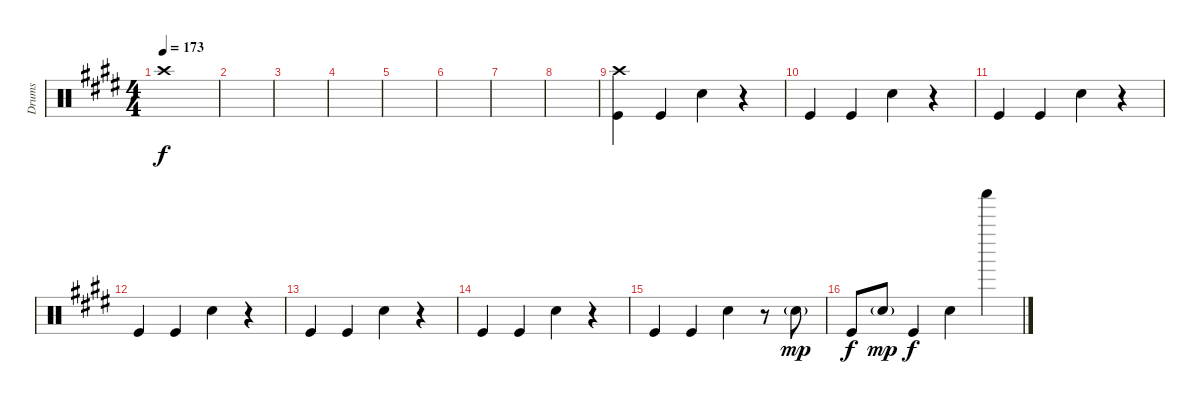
\track ("Drums" "Drums") {instrument percussion}
\staff {score}
\articulation defaults
\ts (4 4)
\tempo 173
\clef neutral
\ks e "Crash high (hit)".1{dy f}
|
|
|
|
|
|
|
|
("Kick (hit)" "Crash high (hit)").4 "Kick (hit)".4 "Snare (hit) 2".4 r.4 |
"Kick (hit)".4 "Kick (hit)".4 "Snare (hit) 2".4 r.4 |
"Kick (hit)".4 "Kick (hit)".4 "Snare (hit) 2".4 r.4 |
"Kick (hit)".4 "Kick (hit)".4 "Snare (hit) 2".4 r.4 |
"Kick (hit)".4 "Kick (hit)".4 "Snare (hit) 2".4 r.4 |
"Kick (hit)".4 "Kick (hit)".4 "Snare (hit) 2".4 r.4 |
"Kick (hit)".4 "Kick (hit)".4 "Snare (hit) 2".4 r.8 "Snare (hit) 2"{g}.8{dy mp} |
"Kick (hit)".8{dy f} "Snare (hit) 2"{g}.8{dy mp} "Kick (hit)".4{dy f} "Snare (hit) 2".4 "Shaker (hit)".4
